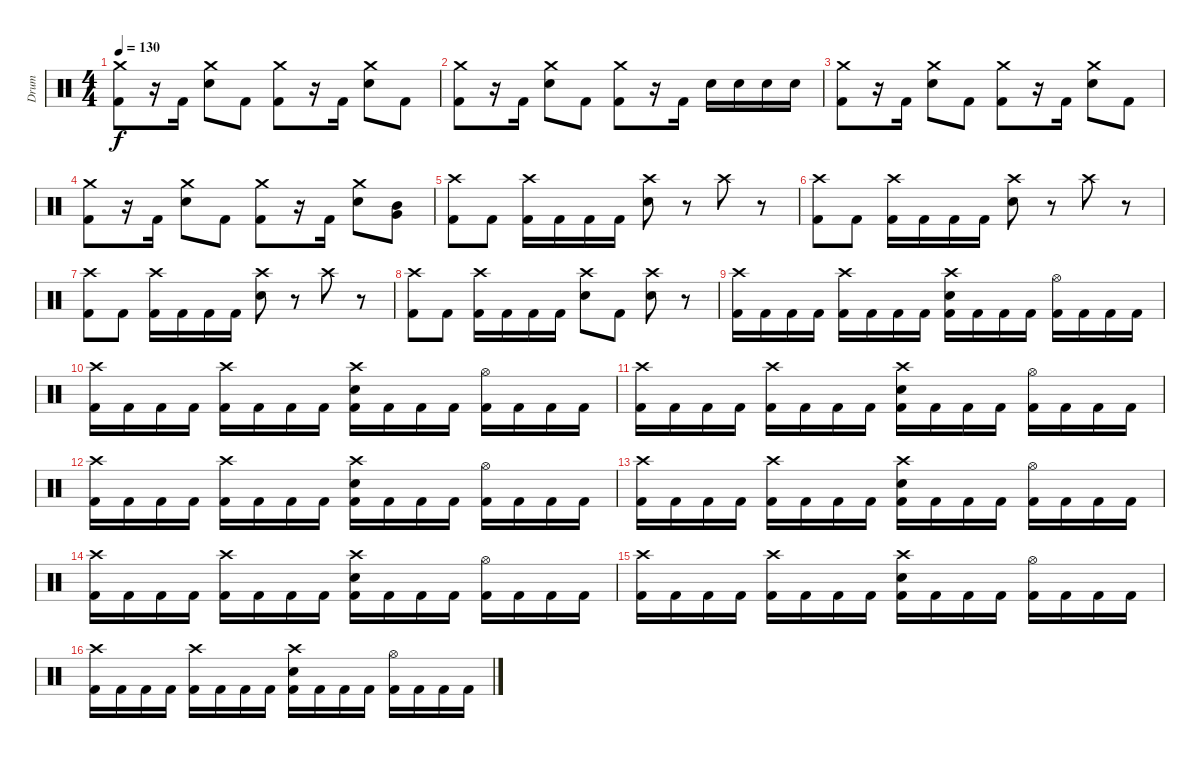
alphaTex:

\track ("Drum" "Drum") {instrument percussion}
\staff {score}
\articulation defaults
\ts (4 4)
\tempo 130
\clef neutral
\ks c
("Crash medium (hit)" "Kick (hit) 2").8{dy f} r.16 "Kick (hit) 2".16 ("Crash medium (hit)" "Snare (hit) 2").8 "Kick (hit) 2".8 ("Crash medium (hit)" "Kick (hit) 2").8 r.16 "Kick (hit) 2".16 ("Crash medium (hit)" "Snare (hit) 2").8 "Kick (hit) 2".8 |
("Crash medium (hit)" "Kick (hit) 2").8 r.16 "Kick (hit) 2".16 ("Crash medium (hit)" "Snare (hit) 2").8 "Kick (hit) 2".8 ("Crash medium (hit)" "Kick (hit) 2").8 r.16 "Kick (hit) 2".16 "Snare (hit) 2".16 "Snare (hit) 2".16 "Snare (hit) 2".16 "Snare (hit) 2".16 |
("Crash medium (hit)" "Kick (hit) 2").8 r.16 "Kick (hit) 2".16 ("Crash medium (hit)" "Snare (hit) 2").8 "Kick (hit) 2".8 ("Crash medium (hit)" "Kick (hit) 2").8 r.16 "Kick (hit) 2".16 ("Crash medium (hit)" "Snare (hit) 2").8 "Kick (hit) 2".8 |
("Crash medium (hit)" "Kick (hit) 2").8 r.16 "Kick (hit) 2".16 ("Crash medium (hit)" "Snare (hit) 2").8 "Kick (hit) 2".8 ("Crash medium (hit)" "Kick (hit) 2").8 r.16 "Kick (hit) 2".16 ("Crash medium (hit)" "Snare (hit) 2").8 ("Very Low Tom (hit)" "Mid Tom (hit)").8 |
("Crash high (hit)" "Kick (hit) 2").8 "Kick (hit) 2".8 ("Crash high (hit)" "Kick (hit) 2").16 "Kick (hit) 2".16 "Kick (hit) 2".16 "Kick (hit) 2".16 ("Crash high (hit)" "Snare (hit) 2").8 r.8 "Crash high (hit)".8 r.8 |
("Crash high (hit)" "Kick (hit) 2").8 "Kick (hit) 2".8 ("Crash high (hit)" "Kick (hit) 2").16 "Kick (hit) 2".16 "Kick (hit) 2".16 "Kick (hit) 2".16 ("Crash high (hit)" "Snare (hit) 2").8 r.8 "Crash high (hit)".8 r.8 |
("Crash high (hit)" "Kick (hit) 2").8 "Kick (hit) 2".8 ("Crash high (hit)" "Kick (hit) 2").16 "Kick (hit) 2".16 "Kick (hit) 2".16 "Kick (hit) 2".16 ("Crash high (hit)" "Snare (hit) 2").8 r.8 "Crash high (hit)".8 r.8 |
("Crash high (hit)" "Kick (hit) 2").8 "Kick (hit) 2".8 ("Crash high (hit)" "Kick (hit) 2").16 "Kick (hit) 2".16 "Kick (hit) 2".16 "Kick (hit) 2".16 ("Crash high (hit)" "Snare (hit) 2").8 "Kick (hit) 2".8 ("Crash high (hit)" "Snare (hit) 2").8 r.8 |
("Crash high (hit)" "Kick (hit) 2").16 "Kick (hit) 2".16 "Kick (hit) 2".16 "Kick (hit) 2".16 ("Crash high (hit)" "Kick (hit) 2").16 "Kick (hit) 2".16 "Kick (hit) 2".16 "Kick (hit) 2".16 ("Crash high (hit)" "Kick (hit) 2" "Snare (hit) 2").16 "Kick (hit) 2".16 "Kick (hit) 2".16 "Kick (hit) 2".16 ("Hi-Hat (open)" "Kick (hit) 2").16 "Kick (hit) 2".16 "Kick (hit) 2".16 "Kick (hit) 2".16 |
("Crash high (hit)" "Kick (hit) 2").16 "Kick (hit) 2".16 "Kick (hit) 2".16 "Kick (hit) 2".16 ("Crash high (hit)" "Kick (hit) 2").16 "Kick (hit) 2".16 "Kick (hit) 2".16 "Kick (hit) 2".16 ("Crash high (hit)" "Kick (hit) 2" "Snare (hit) 2").16 "Kick (hit) 2".16 "Kick (hit) 2".16 "Kick (hit) 2".16 ("Hi-Hat (open)" "Kick (hit) 2").16 "Kick (hit) 2".16 "Kick (hit) 2".16 "Kick (hit) 2".16 |
("Crash high (hit)" "Kick (hit) 2").16 "Kick (hit) 2".16 "Kick (hit) 2".16 "Kick (hit) 2".16 ("Crash high (hit)" "Kick (hit) 2").16 "Kick (hit) 2".16 "Kick (hit) 2".16 "Kick (hit) 2".16 ("Crash high (hit)" "Kick (hit) 2" "Snare (hit) 2").16 "Kick (hit) 2".16 "Kick (hit) 2".16 "Kick (hit) 2".16 ("Hi-Hat (open)" "Kick (hit) 2").16 "Kick (hit) 2".16 "Kick (hit) 2".16 "Kick (hit) 2".16 |
("Crash high (hit)" "Kick (hit) 2").16 "Kick (hit) 2".16 "Kick (hit) 2".16 "Kick (hit) 2".16 ("Crash high (hit)" "Kick (hit) 2").16 "Kick (hit) 2".16 "Kick (hit) 2".16 "Kick (hit) 2".16 ("Crash high (hit)" "Kick (hit) 2" "Snare (hit) 2").16 "Kick (hit) 2".16 "Kick (hit) 2".16 "Kick (hit) 2".16 ("Hi-Hat (open)" "Kick (hit) 2").16 "Kick (hit) 2".16 "Kick (hit) 2".16 "Kick (hit) 2".16 |
("Crash high (hit)" "Kick (hit) 2").16 "Kick (hit) 2".16 "Kick (hit) 2".16 "Kick (hit) 2".16 ("Crash high (hit)" "Kick (hit) 2").16 "Kick (hit) 2".16 "Kick (hit) 2".16 "Kick (hit) 2".16 ("Crash high (hit)" "Kick (hit) 2" "Snare (hit) 2").16 "Kick (hit) 2".16 "Kick (hit) 2".16 "Kick (hit) 2".16 ("Hi-Hat (open)" "Kick (hit) 2").16 "Kick (hit) 2".16 "Kick (hit) 2".16 "Kick (hit) 2".16 |
("Crash high (hit)" "Kick (hit) 2").16 "Kick (hit) 2".16 "Kick (hit) 2".16 "Kick (hit) 2".16 ("Crash high (hit)" "Kick (hit) 2").16 "Kick (hit) 2".16 "Kick (hit) 2".16 "Kick (hit) 2".16 ("Crash high (hit)" "Kick (hit) 2" "Snare (hit) 2").16 "Kick (hit) 2".16 "Kick (hit) 2".16 "Kick (hit) 2".16 ("Hi-Hat (open)" "Kick (hit) 2").16 "Kick (hit) 2".16 "Kick (hit) 2".16 "Kick (hit) 2".16 |
("Crash high (hit)" "Kick (hit) 2").16 "Kick (hit) 2".16 "Kick (hit) 2".16 "Kick (hit) 2".16 ("Crash high (hit)" "Kick (hit) 2").16 "Kick (hit) 2".16 "Kick (hit) 2".16 "Kick (hit) 2".16 ("Crash high (hit)" "Kick (hit) 2" "Snare (hit) 2").16 "Kick (hit) 2".16 "Kick (hit) 2".16 "Kick (hit) 2".16 ("Hi-Hat (open)" "Kick (hit) 2").16 "Kick (hit) 2".16 "Kick (hit) 2".16 "Kick (hit) 2".16 |
("Crash high (hit)" "Kick (hit) 2").16 "Kick (hit) 2".16 "Kick (hit) 2".16 "Kick (hit) 2".16 ("Crash high (hit)" "Kick (hit) 2").16 "Kick (hit) 2".16 "Kick (hit) 2".16 "Kick (hit) 2".16 ("Crash high (hit)" "Kick (hit) 2" "Snare (hit) 2").16 "Kick (hit) 2".16 "Kick (hit) 2".16 "Kick (hit) 2".16 ("Hi-Hat (open)" "Kick (hit) 2").16 "Kick (hit) 2".16 "Kick (hit) 2".16 "Kick (hit) 2".16
